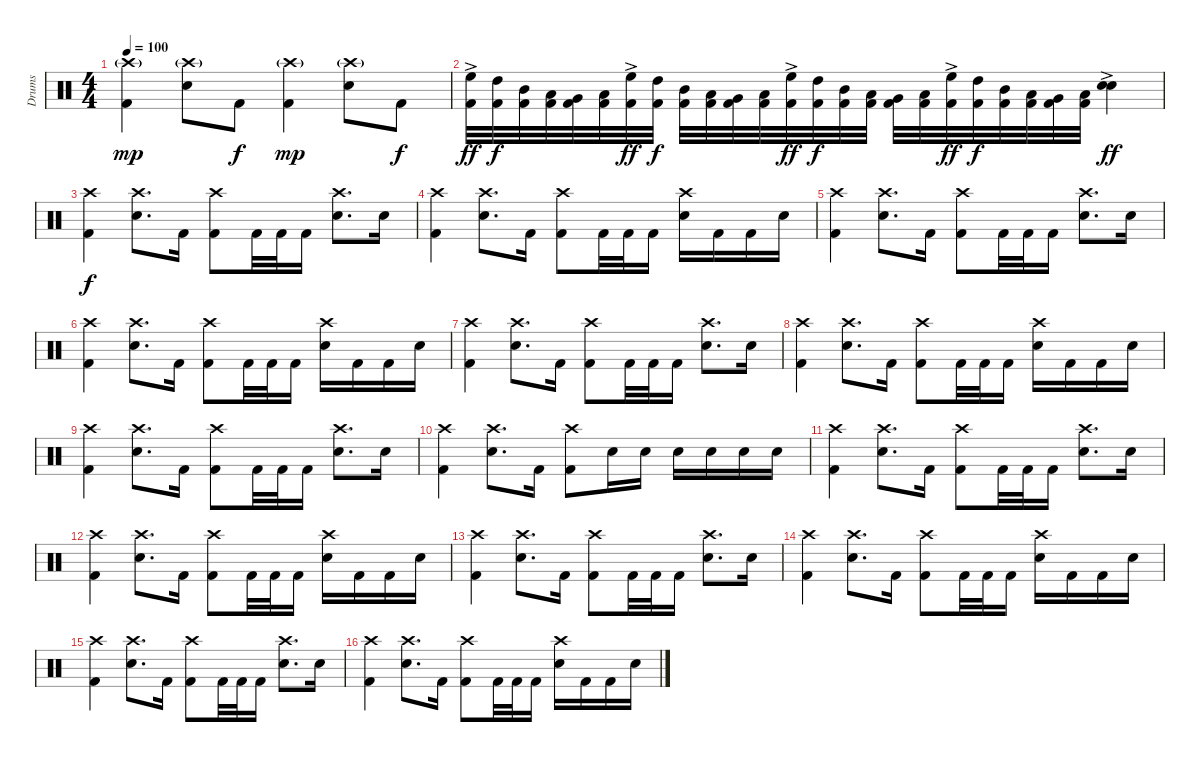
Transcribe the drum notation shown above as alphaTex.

\track ("Drums" "Drums") {instrument percussion}
\staff {score}
\articulation defaults
\ts (4 4)
\tempo 100
\clef neutral
\ks c
("Crash high (hit)"{g} "Kick (hit) 2").4{dy mp} ("Crash high (hit)"{g} "Electric Snare (hit)").8 "Kick (hit) 2".8{dy f} ("Crash high (hit)"{g} "Kick (hit) 2").4{dy mp} ("Crash high (hit)"{g} "Electric Snare (hit)").8 "Kick (hit) 2".8{dy f} |
("High Floor Tom (hit)"{ac} "Kick (hit) 2").32{dy ff} ("High Tom (hit)" "Kick (hit) 2").32{dy f} ("Mid Tom (hit)" "Kick (hit) 2").32 ("Low Tom (hit)" "Kick (hit) 2").32 ("Very Low Tom (hit)" "Kick (hit) 2").32 ("Low Floor Tom (hit)" "Kick (hit) 2").32 ("High Floor Tom (hit)"{ac} "Kick (hit) 2").32{dy ff} ("High Tom (hit)" "Kick (hit) 2").32{dy f} ("Mid Tom (hit)" "Kick (hit) 2").32 ("Low Tom (hit)" "Kick (hit) 2").32 ("Very Low Tom (hit)" "Kick (hit) 2").32 ("Low Floor Tom (hit)" "Kick (hit) 2").32 ("High Floor Tom (hit)"{ac} "Kick (hit) 2").32{dy ff} ("High Tom (hit)" "Kick (hit) 2").32{dy f} ("Mid Tom (hit)" "Kick (hit) 2").32 ("Low Tom (hit)" "Kick (hit) 2").32 ("Very Low Tom (hit)" "Kick (hit) 2").32 ("Low Floor Tom (hit)" "Kick (hit) 2").32 ("High Floor Tom (hit)"{ac} "Kick (hit) 2").32{dy ff} ("High Tom (hit)" "Kick (hit) 2").32{dy f} ("Mid Tom (hit)" "Kick (hit) 2").32 ("Low Tom (hit)" "Kick (hit) 2").32 ("Very Low Tom (hit)" "Kick (hit) 2").32 ("Low Floor Tom (hit)" "Kick (hit) 2").32 ("Electric Snare (hit)"{ac} "Electric Snare (hit)").4{dy ff} |
("Crash high (hit)" "Kick (hit) 2").4{dy f} ("Crash high (hit)" "Electric Snare (hit)").8{d} "Kick (hit) 2".16 ("Crash high (hit)" "Kick (hit) 2").8 "Kick (hit) 2".32 "Kick (hit) 2".32 "Kick (hit) 2".16 ("Crash high (hit)" "Electric Snare (hit)").8{d} "Electric Snare (hit)".16 |
("Crash high (hit)" "Kick (hit) 2").4 ("Crash high (hit)" "Electric Snare (hit)").8{d} "Kick (hit) 2".16 ("Crash high (hit)" "Kick (hit) 2").8 "Kick (hit) 2".32 "Kick (hit) 2".32 "Kick (hit) 2".16 ("Crash high (hit)" "Electric Snare (hit)").16 "Kick (hit) 2".16 "Kick (hit) 2".16 "Electric Snare (hit)".16 |
("Crash high (hit)" "Kick (hit) 2").4 ("Crash high (hit)" "Electric Snare (hit)").8{d} "Kick (hit) 2".16 ("Crash high (hit)" "Kick (hit) 2").8 "Kick (hit) 2".32 "Kick (hit) 2".32 "Kick (hit) 2".16 ("Crash high (hit)" "Electric Snare (hit)").8{d} "Electric Snare (hit)".16 |
("Crash high (hit)" "Kick (hit) 2").4 ("Crash high (hit)" "Electric Snare (hit)").8{d} "Kick (hit) 2".16 ("Crash high (hit)" "Kick (hit) 2").8 "Kick (hit) 2".32 "Kick (hit) 2".32 "Kick (hit) 2".16 ("Crash high (hit)" "Electric Snare (hit)").16 "Kick (hit) 2".16 "Kick (hit) 2".16 "Electric Snare (hit)".16 |
("Crash high (hit)" "Kick (hit) 2").4 ("Crash high (hit)" "Electric Snare (hit)").8{d} "Kick (hit) 2".16 ("Crash high (hit)" "Kick (hit) 2").8 "Kick (hit) 2".32 "Kick (hit) 2".32 "Kick (hit) 2".16 ("Crash high (hit)" "Electric Snare (hit)").8{d} "Electric Snare (hit)".16 |
("Crash high (hit)" "Kick (hit) 2").4 ("Crash high (hit)" "Electric Snare (hit)").8{d} "Kick (hit) 2".16 ("Crash high (hit)" "Kick (hit) 2").8 "Kick (hit) 2".32 "Kick (hit) 2".32 "Kick (hit) 2".16 ("Crash high (hit)" "Electric Snare (hit)").16 "Kick (hit) 2".16 "Kick (hit) 2".16 "Electric Snare (hit)".16 |
("Crash high (hit)" "Kick (hit) 2").4 ("Crash high (hit)" "Electric Snare (hit)").8{d} "Kick (hit) 2".16 ("Crash high (hit)" "Kick (hit) 2").8 "Kick (hit) 2".32 "Kick (hit) 2".32 "Kick (hit) 2".16 ("Crash high (hit)" "Electric Snare (hit)").8{d} "Electric Snare (hit)".16 |
("Crash high (hit)" "Kick (hit) 2").4 ("Crash high (hit)" "Electric Snare (hit)").8{d} "Kick (hit) 2".16 ("Crash high (hit)" "Kick (hit) 2").8 "Electric Snare (hit)".16 "Electric Snare (hit)".16 "Electric Snare (hit)".16 "Electric Snare (hit)".16 "Electric Snare (hit)".16 "Electric Snare (hit)".16 |
("Crash high (hit)" "Kick (hit) 2").4 ("Crash high (hit)" "Electric Snare (hit)").8{d} "Kick (hit) 2".16 ("Crash high (hit)" "Kick (hit) 2").8 "Kick (hit) 2".32 "Kick (hit) 2".32 "Kick (hit) 2".16 ("Crash high (hit)" "Electric Snare (hit)").8{d} "Electric Snare (hit)".16 |
("Crash high (hit)" "Kick (hit) 2").4 ("Crash high (hit)" "Electric Snare (hit)").8{d} "Kick (hit) 2".16 ("Crash high (hit)" "Kick (hit) 2").8 "Kick (hit) 2".32 "Kick (hit) 2".32 "Kick (hit) 2".16 ("Crash high (hit)" "Electric Snare (hit)").16 "Kick (hit) 2".16 "Kick (hit) 2".16 "Electric Snare (hit)".16 |
("Crash high (hit)" "Kick (hit) 2").4 ("Crash high (hit)" "Electric Snare (hit)").8{d} "Kick (hit) 2".16 ("Crash high (hit)" "Kick (hit) 2").8 "Kick (hit) 2".32 "Kick (hit) 2".32 "Kick (hit) 2".16 ("Crash high (hit)" "Electric Snare (hit)").8{d} "Electric Snare (hit)".16 |
("Crash high (hit)" "Kick (hit) 2").4 ("Crash high (hit)" "Electric Snare (hit)").8{d} "Kick (hit) 2".16 ("Crash high (hit)" "Kick (hit) 2").8 "Kick (hit) 2".32 "Kick (hit) 2".32 "Kick (hit) 2".16 ("Crash high (hit)" "Electric Snare (hit)").16 "Kick (hit) 2".16 "Kick (hit) 2".16 "Electric Snare (hit)".16 |
("Crash high (hit)" "Kick (hit) 2").4 ("Crash high (hit)" "Electric Snare (hit)").8{d} "Kick (hit) 2".16 ("Crash high (hit)" "Kick (hit) 2").8 "Kick (hit) 2".32 "Kick (hit) 2".32 "Kick (hit) 2".16 ("Crash high (hit)" "Electric Snare (hit)").8{d} "Electric Snare (hit)".16 |
("Crash high (hit)" "Kick (hit) 2").4 ("Crash high (hit)" "Electric Snare (hit)").8{d} "Kick (hit) 2".16 ("Crash high (hit)" "Kick (hit) 2").8 "Kick (hit) 2".32 "Kick (hit) 2".32 "Kick (hit) 2".16 ("Crash high (hit)" "Electric Snare (hit)").16 "Kick (hit) 2".16 "Kick (hit) 2".16 "Electric Snare (hit)".16
